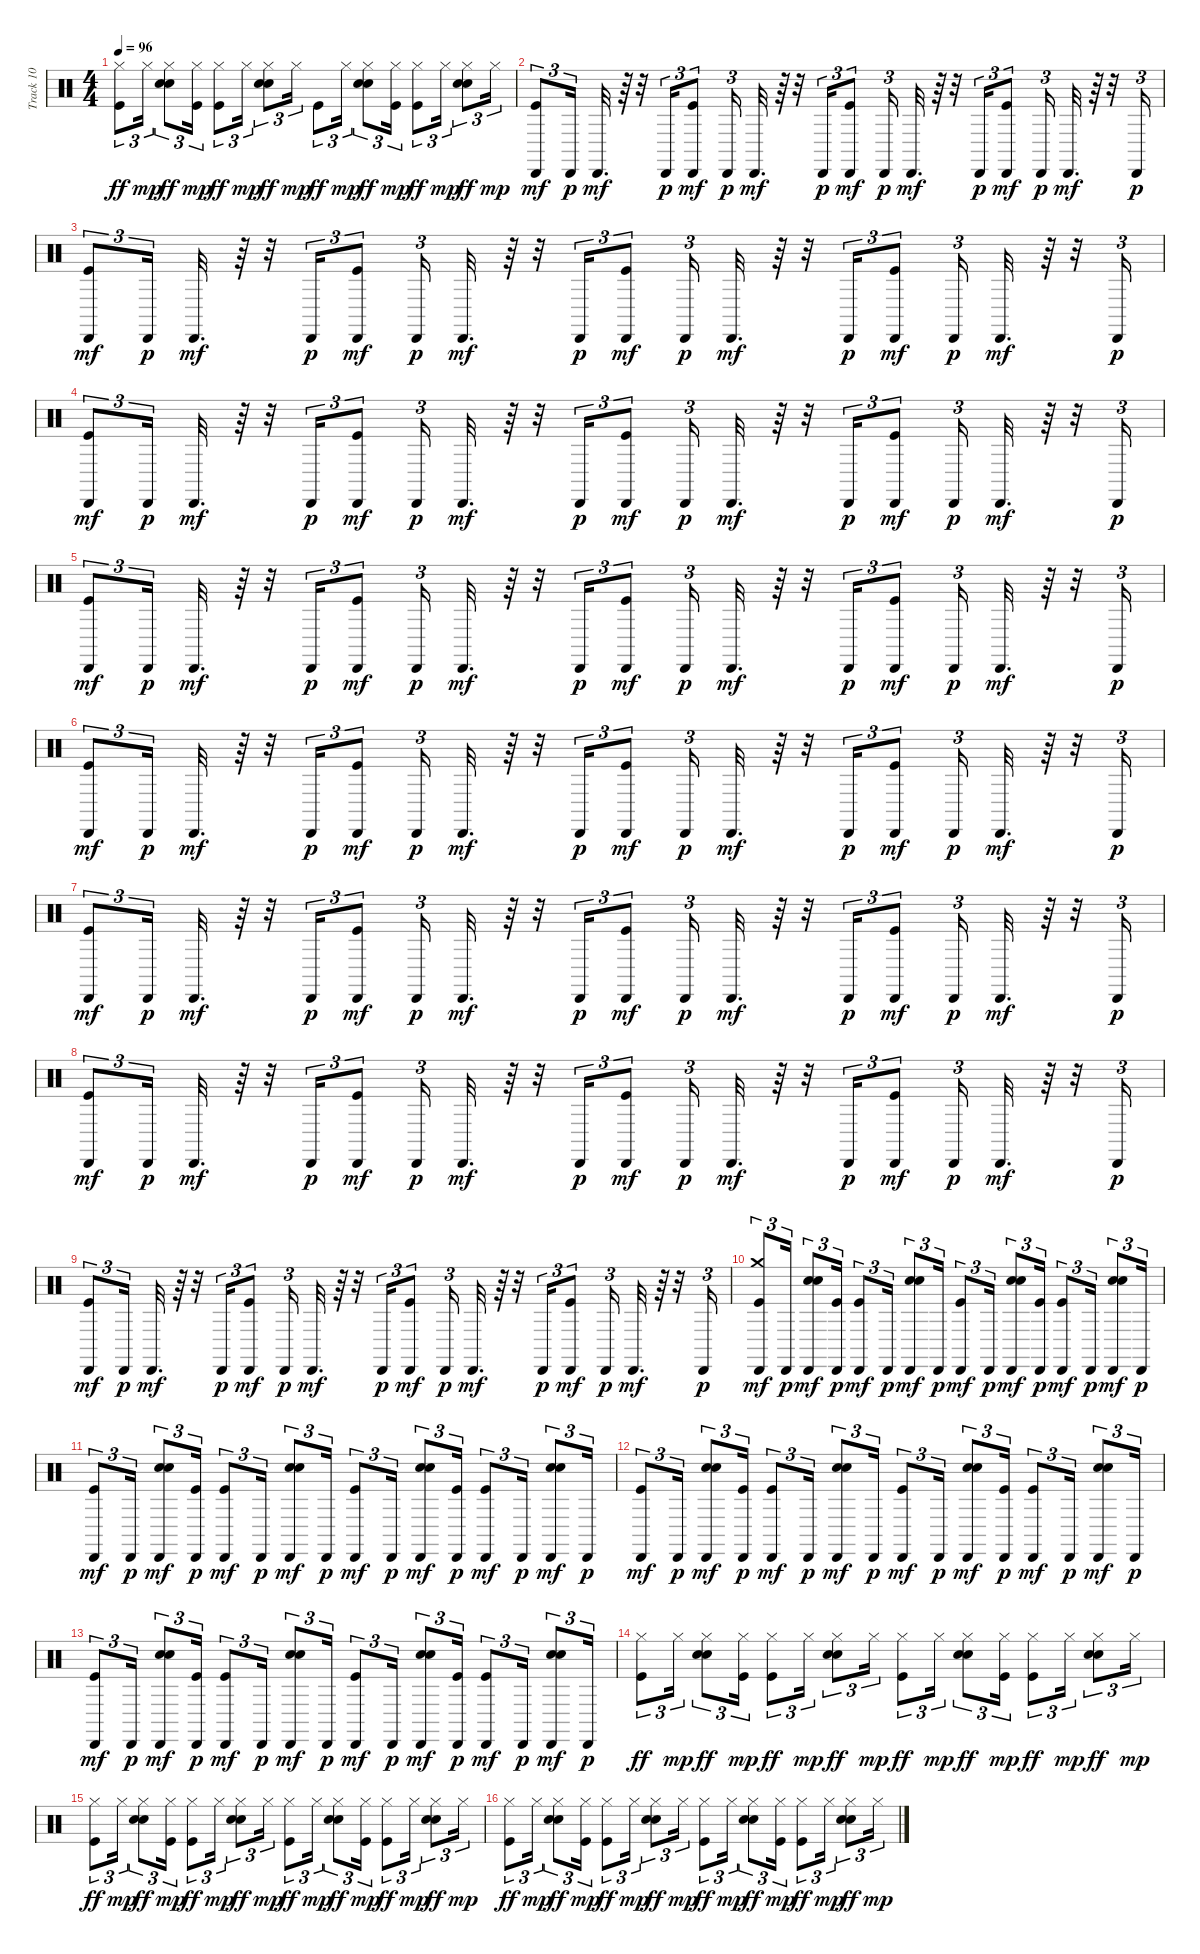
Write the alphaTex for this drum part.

\track ("Track 10" "Track 10") {instrument percussion}
\staff {score}
\articulation defaults
\ts (4 4)
\tempo 96
\clef neutral
\ks c
("Kick (hit)" "Hi-Hat (closed)").8{tu (3 2) dy ff} "Hi-Hat (closed)".16{tu (3 2) dy mp} ("Snare (hit) 2" "Hand Clap (hit)" "Hi-Hat (closed)").8{tu (3 2) dy ff} ("Kick (hit)" "Hi-Hat (closed)").16{tu (3 2) dy mp} ("Kick (hit)" "Hi-Hat (closed)").8{tu (3 2) dy ff} "Hi-Hat (closed)".16{tu (3 2) dy mp} ("Snare (hit) 2" "Hand Clap (hit)" "Hi-Hat (closed)").8{tu (3 2) dy ff} "Hi-Hat (closed)".16{tu (3 2) dy mp} "Kick (hit)".8{tu (3 2) dy ff} "Hi-Hat (closed)".16{tu (3 2) dy mp} ("Snare (hit) 2" "Hand Clap (hit)" "Hi-Hat (closed)").8{tu (3 2) dy ff} ("Kick (hit)" "Hi-Hat (closed)").16{tu (3 2) dy mp} ("Kick (hit)" "Hi-Hat (closed)").8{tu (3 2) dy ff} "Hi-Hat (closed)".16{tu (3 2) dy mp} ("Snare (hit) 2" "Hand Clap (hit)" "Hi-Hat (closed)").8{tu (3 2) dy ff} "Hi-Hat (closed)".16{tu (3 2) dy mp} |
("Kick (hit)" "Cabasa (hit)").8{tu (3 2) dy mf} "Cabasa (hit)".16{tu (3 2) dy p} "Cabasa (hit)".32{d dy mf} r.64 r.32 "Cabasa (hit)".16{tu (3 2) dy p} ("Kick (hit)" "Cabasa (hit)").8{tu (3 2) dy mf} "Cabasa (hit)".16{tu (3 2) dy p} "Cabasa (hit)".32{d dy mf} r.64 r.32 "Cabasa (hit)".16{tu (3 2) dy p} ("Kick (hit)" "Cabasa (hit)").8{tu (3 2) dy mf} "Cabasa (hit)".16{tu (3 2) dy p} "Cabasa (hit)".32{d dy mf} r.64 r.32 "Cabasa (hit)".16{tu (3 2) dy p} ("Kick (hit)" "Cabasa (hit)").8{tu (3 2) dy mf} "Cabasa (hit)".16{tu (3 2) dy p} "Cabasa (hit)".32{d dy mf} r.64 r.32 "Cabasa (hit)".16{tu (3 2) dy p} |
("Kick (hit)" "Cabasa (hit)").8{tu (3 2) dy mf} "Cabasa (hit)".16{tu (3 2) dy p} "Cabasa (hit)".32{d dy mf} r.64 r.32 "Cabasa (hit)".16{tu (3 2) dy p} ("Kick (hit)" "Cabasa (hit)").8{tu (3 2) dy mf} "Cabasa (hit)".16{tu (3 2) dy p} "Cabasa (hit)".32{d dy mf} r.64 r.32 "Cabasa (hit)".16{tu (3 2) dy p} ("Kick (hit)" "Cabasa (hit)").8{tu (3 2) dy mf} "Cabasa (hit)".16{tu (3 2) dy p} "Cabasa (hit)".32{d dy mf} r.64 r.32 "Cabasa (hit)".16{tu (3 2) dy p} ("Kick (hit)" "Cabasa (hit)").8{tu (3 2) dy mf} "Cabasa (hit)".16{tu (3 2) dy p} "Cabasa (hit)".32{d dy mf} r.64 r.32 "Cabasa (hit)".16{tu (3 2) dy p} |
("Kick (hit)" "Cabasa (hit)").8{tu (3 2) dy mf} "Cabasa (hit)".16{tu (3 2) dy p} "Cabasa (hit)".32{d dy mf} r.64 r.32 "Cabasa (hit)".16{tu (3 2) dy p} ("Kick (hit)" "Cabasa (hit)").8{tu (3 2) dy mf} "Cabasa (hit)".16{tu (3 2) dy p} "Cabasa (hit)".32{d dy mf} r.64 r.32 "Cabasa (hit)".16{tu (3 2) dy p} ("Kick (hit)" "Cabasa (hit)").8{tu (3 2) dy mf} "Cabasa (hit)".16{tu (3 2) dy p} "Cabasa (hit)".32{d dy mf} r.64 r.32 "Cabasa (hit)".16{tu (3 2) dy p} ("Kick (hit)" "Cabasa (hit)").8{tu (3 2) dy mf} "Cabasa (hit)".16{tu (3 2) dy p} "Cabasa (hit)".32{d dy mf} r.64 r.32 "Cabasa (hit)".16{tu (3 2) dy p} |
("Kick (hit)" "Cabasa (hit)").8{tu (3 2) dy mf} "Cabasa (hit)".16{tu (3 2) dy p} "Cabasa (hit)".32{d dy mf} r.64 r.32 "Cabasa (hit)".16{tu (3 2) dy p} ("Kick (hit)" "Cabasa (hit)").8{tu (3 2) dy mf} "Cabasa (hit)".16{tu (3 2) dy p} "Cabasa (hit)".32{d dy mf} r.64 r.32 "Cabasa (hit)".16{tu (3 2) dy p} ("Kick (hit)" "Cabasa (hit)").8{tu (3 2) dy mf} "Cabasa (hit)".16{tu (3 2) dy p} "Cabasa (hit)".32{d dy mf} r.64 r.32 "Cabasa (hit)".16{tu (3 2) dy p} ("Kick (hit)" "Cabasa (hit)").8{tu (3 2) dy mf} "Cabasa (hit)".16{tu (3 2) dy p} "Cabasa (hit)".32{d dy mf} r.64 r.32 "Cabasa (hit)".16{tu (3 2) dy p} |
("Kick (hit)" "Cabasa (hit)").8{tu (3 2) dy mf} "Cabasa (hit)".16{tu (3 2) dy p} "Cabasa (hit)".32{d dy mf} r.64 r.32 "Cabasa (hit)".16{tu (3 2) dy p} ("Kick (hit)" "Cabasa (hit)").8{tu (3 2) dy mf} "Cabasa (hit)".16{tu (3 2) dy p} "Cabasa (hit)".32{d dy mf} r.64 r.32 "Cabasa (hit)".16{tu (3 2) dy p} ("Kick (hit)" "Cabasa (hit)").8{tu (3 2) dy mf} "Cabasa (hit)".16{tu (3 2) dy p} "Cabasa (hit)".32{d dy mf} r.64 r.32 "Cabasa (hit)".16{tu (3 2) dy p} ("Kick (hit)" "Cabasa (hit)").8{tu (3 2) dy mf} "Cabasa (hit)".16{tu (3 2) dy p} "Cabasa (hit)".32{d dy mf} r.64 r.32 "Cabasa (hit)".16{tu (3 2) dy p} |
("Kick (hit)" "Cabasa (hit)").8{tu (3 2) dy mf} "Cabasa (hit)".16{tu (3 2) dy p} "Cabasa (hit)".32{d dy mf} r.64 r.32 "Cabasa (hit)".16{tu (3 2) dy p} ("Kick (hit)" "Cabasa (hit)").8{tu (3 2) dy mf} "Cabasa (hit)".16{tu (3 2) dy p} "Cabasa (hit)".32{d dy mf} r.64 r.32 "Cabasa (hit)".16{tu (3 2) dy p} ("Kick (hit)" "Cabasa (hit)").8{tu (3 2) dy mf} "Cabasa (hit)".16{tu (3 2) dy p} "Cabasa (hit)".32{d dy mf} r.64 r.32 "Cabasa (hit)".16{tu (3 2) dy p} ("Kick (hit)" "Cabasa (hit)").8{tu (3 2) dy mf} "Cabasa (hit)".16{tu (3 2) dy p} "Cabasa (hit)".32{d dy mf} r.64 r.32 "Cabasa (hit)".16{tu (3 2) dy p} |
("Kick (hit)" "Cabasa (hit)").8{tu (3 2) dy mf} "Cabasa (hit)".16{tu (3 2) dy p} "Cabasa (hit)".32{d dy mf} r.64 r.32 "Cabasa (hit)".16{tu (3 2) dy p} ("Kick (hit)" "Cabasa (hit)").8{tu (3 2) dy mf} "Cabasa (hit)".16{tu (3 2) dy p} "Cabasa (hit)".32{d dy mf} r.64 r.32 "Cabasa (hit)".16{tu (3 2) dy p} ("Kick (hit)" "Cabasa (hit)").8{tu (3 2) dy mf} "Cabasa (hit)".16{tu (3 2) dy p} "Cabasa (hit)".32{d dy mf} r.64 r.32 "Cabasa (hit)".16{tu (3 2) dy p} ("Kick (hit)" "Cabasa (hit)").8{tu (3 2) dy mf} "Cabasa (hit)".16{tu (3 2) dy p} "Cabasa (hit)".32{d dy mf} r.64 r.32 "Cabasa (hit)".16{tu (3 2) dy p} |
("Kick (hit)" "Cabasa (hit)").8{tu (3 2) dy mf} "Cabasa (hit)".16{tu (3 2) dy p} "Cabasa (hit)".32{d dy mf} r.64 r.32 "Cabasa (hit)".16{tu (3 2) dy p} ("Kick (hit)" "Cabasa (hit)").8{tu (3 2) dy mf} "Cabasa (hit)".16{tu (3 2) dy p} "Cabasa (hit)".32{d dy mf} r.64 r.32 "Cabasa (hit)".16{tu (3 2) dy p} ("Kick (hit)" "Cabasa (hit)").8{tu (3 2) dy mf} "Cabasa (hit)".16{tu (3 2) dy p} "Cabasa (hit)".32{d dy mf} r.64 r.32 "Cabasa (hit)".16{tu (3 2) dy p} ("Kick (hit)" "Cabasa (hit)").8{tu (3 2) dy mf} "Cabasa (hit)".16{tu (3 2) dy p} "Cabasa (hit)".32{d dy mf} r.64 r.32 "Cabasa (hit)".16{tu (3 2) dy p} |
("Kick (hit)" "Crash medium (hit)" "Cabasa (hit)").8{tu (3 2) dy mf} "Cabasa (hit)".16{tu (3 2) dy p} ("Snare (hit) 2" "Hand Clap (hit)" "Cabasa (hit)").8{tu (3 2) dy mf} ("Kick (hit)" "Cabasa (hit)").16{tu (3 2) dy p} ("Kick (hit)" "Cabasa (hit)").8{tu (3 2) dy mf} "Cabasa (hit)".16{tu (3 2) dy p} ("Snare (hit) 2" "Hand Clap (hit)" "Cabasa (hit)").8{tu (3 2) dy mf} "Cabasa (hit)".16{tu (3 2) dy p} ("Kick (hit)" "Cabasa (hit)").8{tu (3 2) dy mf} "Cabasa (hit)".16{tu (3 2) dy p} ("Snare (hit) 2" "Hand Clap (hit)" "Cabasa (hit)").8{tu (3 2) dy mf} ("Kick (hit)" "Cabasa (hit)").16{tu (3 2) dy p} ("Kick (hit)" "Cabasa (hit)").8{tu (3 2) dy mf} "Cabasa (hit)".16{tu (3 2) dy p} ("Snare (hit) 2" "Hand Clap (hit)" "Cabasa (hit)").8{tu (3 2) dy mf} "Cabasa (hit)".16{tu (3 2) dy p} |
("Kick (hit)" "Cabasa (hit)").8{tu (3 2) dy mf} "Cabasa (hit)".16{tu (3 2) dy p} ("Snare (hit) 2" "Hand Clap (hit)" "Cabasa (hit)").8{tu (3 2) dy mf} ("Kick (hit)" "Cabasa (hit)").16{tu (3 2) dy p} ("Kick (hit)" "Cabasa (hit)").8{tu (3 2) dy mf} "Cabasa (hit)".16{tu (3 2) dy p} ("Snare (hit) 2" "Hand Clap (hit)" "Cabasa (hit)").8{tu (3 2) dy mf} "Cabasa (hit)".16{tu (3 2) dy p} ("Kick (hit)" "Cabasa (hit)").8{tu (3 2) dy mf} "Cabasa (hit)".16{tu (3 2) dy p} ("Snare (hit) 2" "Hand Clap (hit)" "Cabasa (hit)").8{tu (3 2) dy mf} ("Kick (hit)" "Cabasa (hit)").16{tu (3 2) dy p} ("Kick (hit)" "Cabasa (hit)").8{tu (3 2) dy mf} "Cabasa (hit)".16{tu (3 2) dy p} ("Snare (hit) 2" "Hand Clap (hit)" "Cabasa (hit)").8{tu (3 2) dy mf} "Cabasa (hit)".16{tu (3 2) dy p} |
("Kick (hit)" "Cabasa (hit)").8{tu (3 2) dy mf} "Cabasa (hit)".16{tu (3 2) dy p} ("Snare (hit) 2" "Hand Clap (hit)" "Cabasa (hit)").8{tu (3 2) dy mf} ("Kick (hit)" "Cabasa (hit)").16{tu (3 2) dy p} ("Kick (hit)" "Cabasa (hit)").8{tu (3 2) dy mf} "Cabasa (hit)".16{tu (3 2) dy p} ("Snare (hit) 2" "Hand Clap (hit)" "Cabasa (hit)").8{tu (3 2) dy mf} "Cabasa (hit)".16{tu (3 2) dy p} ("Kick (hit)" "Cabasa (hit)").8{tu (3 2) dy mf} "Cabasa (hit)".16{tu (3 2) dy p} ("Snare (hit) 2" "Hand Clap (hit)" "Cabasa (hit)").8{tu (3 2) dy mf} ("Kick (hit)" "Cabasa (hit)").16{tu (3 2) dy p} ("Kick (hit)" "Cabasa (hit)").8{tu (3 2) dy mf} "Cabasa (hit)".16{tu (3 2) dy p} ("Snare (hit) 2" "Hand Clap (hit)" "Cabasa (hit)").8{tu (3 2) dy mf} "Cabasa (hit)".16{tu (3 2) dy p} |
("Kick (hit)" "Cabasa (hit)").8{tu (3 2) dy mf} "Cabasa (hit)".16{tu (3 2) dy p} ("Snare (hit) 2" "Hand Clap (hit)" "Cabasa (hit)").8{tu (3 2) dy mf} ("Kick (hit)" "Cabasa (hit)").16{tu (3 2) dy p} ("Kick (hit)" "Cabasa (hit)").8{tu (3 2) dy mf} "Cabasa (hit)".16{tu (3 2) dy p} ("Snare (hit) 2" "Hand Clap (hit)" "Cabasa (hit)").8{tu (3 2) dy mf} "Cabasa (hit)".16{tu (3 2) dy p} ("Kick (hit)" "Cabasa (hit)").8{tu (3 2) dy mf} "Cabasa (hit)".16{tu (3 2) dy p} ("Snare (hit) 2" "Hand Clap (hit)" "Cabasa (hit)").8{tu (3 2) dy mf} ("Kick (hit)" "Cabasa (hit)").16{tu (3 2) dy p} ("Kick (hit)" "Cabasa (hit)").8{tu (3 2) dy mf} "Cabasa (hit)".16{tu (3 2) dy p} ("Snare (hit) 2" "Hand Clap (hit)" "Cabasa (hit)").8{tu (3 2) dy mf} "Cabasa (hit)".16{tu (3 2) dy p} |
("Kick (hit)" "Hi-Hat (closed)").8{tu (3 2) dy ff} "Hi-Hat (closed)".16{tu (3 2) dy mp} ("Snare (hit) 2" "Hand Clap (hit)" "Hi-Hat (closed)").8{tu (3 2) dy ff} ("Kick (hit)" "Hi-Hat (closed)").16{tu (3 2) dy mp} ("Kick (hit)" "Hi-Hat (closed)").8{tu (3 2) dy ff} "Hi-Hat (closed)".16{tu (3 2) dy mp} ("Snare (hit) 2" "Hand Clap (hit)" "Hi-Hat (closed)").8{tu (3 2) dy ff} "Hi-Hat (closed)".16{tu (3 2) dy mp} ("Kick (hit)" "Hi-Hat (closed)").8{tu (3 2) dy ff} "Hi-Hat (closed)".16{tu (3 2) dy mp} ("Snare (hit) 2" "Hand Clap (hit)" "Hi-Hat (closed)").8{tu (3 2) dy ff} ("Kick (hit)" "Hi-Hat (closed)").16{tu (3 2) dy mp} ("Kick (hit)" "Hi-Hat (closed)").8{tu (3 2) dy ff} "Hi-Hat (closed)".16{tu (3 2) dy mp} ("Snare (hit) 2" "Hand Clap (hit)" "Hi-Hat (closed)").8{tu (3 2) dy ff} "Hi-Hat (closed)".16{tu (3 2) dy mp} |
("Kick (hit)" "Hi-Hat (closed)").8{tu (3 2) dy ff} "Hi-Hat (closed)".16{tu (3 2) dy mp} ("Snare (hit) 2" "Hand Clap (hit)" "Hi-Hat (closed)").8{tu (3 2) dy ff} ("Kick (hit)" "Hi-Hat (closed)").16{tu (3 2) dy mp} ("Kick (hit)" "Hi-Hat (closed)").8{tu (3 2) dy ff} "Hi-Hat (closed)".16{tu (3 2) dy mp} ("Snare (hit) 2" "Hand Clap (hit)" "Hi-Hat (closed)").8{tu (3 2) dy ff} "Hi-Hat (closed)".16{tu (3 2) dy mp} ("Kick (hit)" "Hi-Hat (closed)").8{tu (3 2) dy ff} "Hi-Hat (closed)".16{tu (3 2) dy mp} ("Snare (hit) 2" "Hand Clap (hit)" "Hi-Hat (closed)").8{tu (3 2) dy ff} ("Kick (hit)" "Hi-Hat (closed)").16{tu (3 2) dy mp} ("Kick (hit)" "Hi-Hat (closed)").8{tu (3 2) dy ff} "Hi-Hat (closed)".16{tu (3 2) dy mp} ("Snare (hit) 2" "Hand Clap (hit)" "Hi-Hat (closed)").8{tu (3 2) dy ff} "Hi-Hat (closed)".16{tu (3 2) dy mp} |
("Kick (hit)" "Hi-Hat (closed)").8{tu (3 2) dy ff} "Hi-Hat (closed)".16{tu (3 2) dy mp} ("Snare (hit) 2" "Hand Clap (hit)" "Hi-Hat (closed)").8{tu (3 2) dy ff} ("Kick (hit)" "Hi-Hat (closed)").16{tu (3 2) dy mp} ("Kick (hit)" "Hi-Hat (closed)").8{tu (3 2) dy ff} "Hi-Hat (closed)".16{tu (3 2) dy mp} ("Snare (hit) 2" "Hand Clap (hit)" "Hi-Hat (closed)").8{tu (3 2) dy ff} "Hi-Hat (closed)".16{tu (3 2) dy mp} ("Kick (hit)" "Hi-Hat (closed)").8{tu (3 2) dy ff} "Hi-Hat (closed)".16{tu (3 2) dy mp} ("Snare (hit) 2" "Hand Clap (hit)" "Hi-Hat (closed)").8{tu (3 2) dy ff} ("Kick (hit)" "Hi-Hat (closed)").16{tu (3 2) dy mp} ("Kick (hit)" "Hi-Hat (closed)").8{tu (3 2) dy ff} "Hi-Hat (closed)".16{tu (3 2) dy mp} ("Snare (hit) 2" "Hand Clap (hit)" "Hi-Hat (closed)").8{tu (3 2) dy ff} "Hi-Hat (closed)".16{tu (3 2) dy mp}
